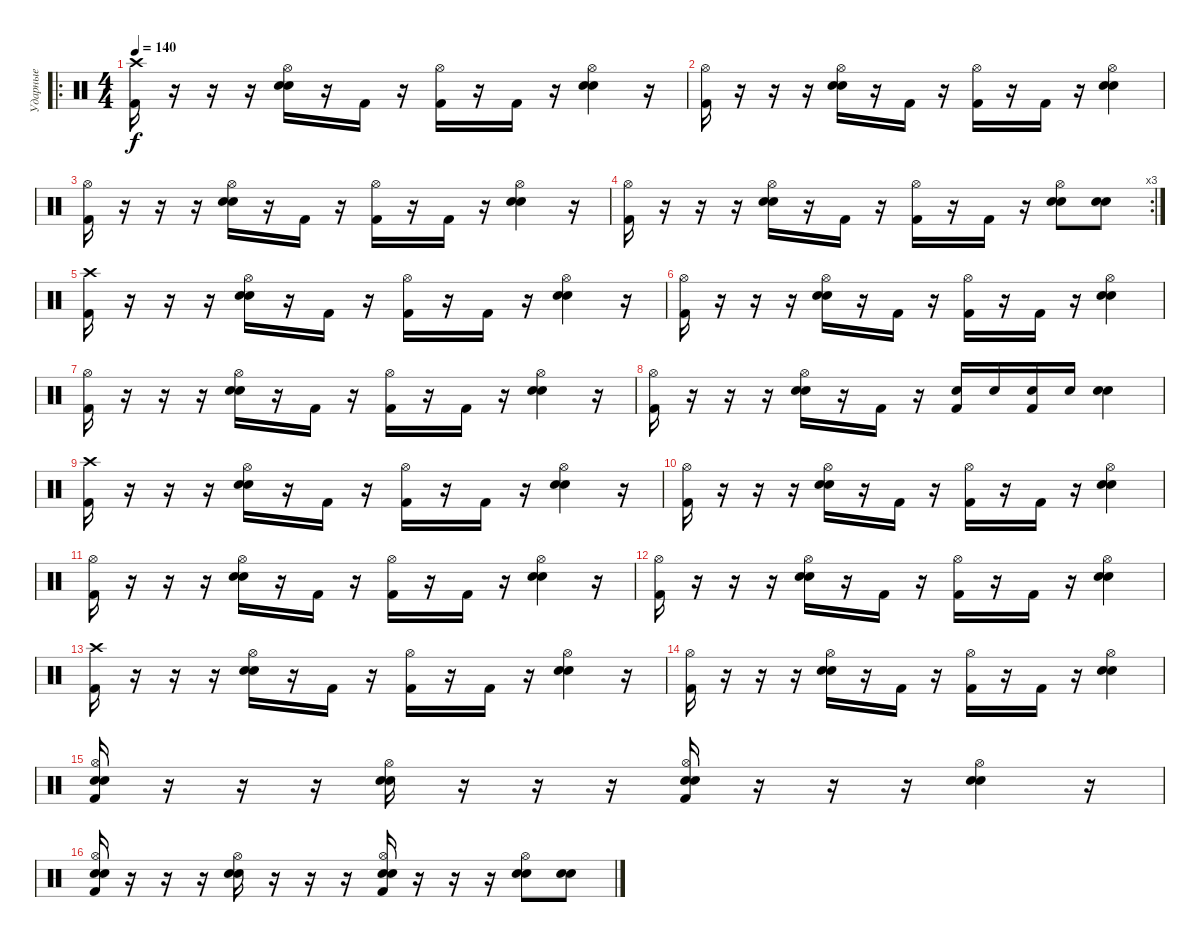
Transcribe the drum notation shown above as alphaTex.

\track ("Ударные" "Ударные") {instrument percussion}
\staff {score}
\articulation defaults
\ro
\ts (4 4)
\tempo 140
\clef neutral
\ks c
("Crash high (hit)" "Kick (hit) 2").16{dy f} r.16 r.16 r.16 ("Hi-Hat (open)" "Electric Snare (hit)" "Snare (hit) 2").16 r.16 "Kick (hit) 2".16 r.16 ("Hi-Hat (open)" "Kick (hit) 2").16 r.16 "Kick (hit) 2".16 r.16 ("Hi-Hat (open)" "Electric Snare (hit)" "Snare (hit) 2").4 r.16 |
("Hi-Hat (open)" "Kick (hit) 2").16 r.16 r.16 r.16 ("Hi-Hat (open)" "Electric Snare (hit)" "Snare (hit) 2").16 r.16 "Kick (hit) 2".16 r.16 ("Hi-Hat (open)" "Kick (hit) 2").16 r.16 "Kick (hit) 2".16 r.16 ("Hi-Hat (open)" "Electric Snare (hit)" "Snare (hit) 2").4 |
("Hi-Hat (open)" "Kick (hit) 2").16 r.16 r.16 r.16 ("Hi-Hat (open)" "Electric Snare (hit)" "Snare (hit) 2").16 r.16 "Kick (hit) 2".16 r.16 ("Hi-Hat (open)" "Kick (hit) 2").16 r.16 "Kick (hit) 2".16 r.16 ("Hi-Hat (open)" "Electric Snare (hit)" "Snare (hit) 2").4 r.16 |
\rc 3
("Hi-Hat (open)" "Kick (hit) 2").16 r.16 r.16 r.16 ("Hi-Hat (open)" "Electric Snare (hit)" "Snare (hit) 2").16 r.16 "Kick (hit) 2".16 r.16 ("Hi-Hat (open)" "Kick (hit) 2").16 r.16 "Kick (hit) 2".16 r.16 ("Hi-Hat (open)" "Electric Snare (hit)" "Snare (hit) 2").8 ("Electric Snare (hit)" "Snare (hit) 2").8 |
("Crash high (hit)" "Kick (hit) 2").16 r.16 r.16 r.16 ("Hi-Hat (open)" "Electric Snare (hit)" "Snare (hit) 2").16 r.16 "Kick (hit) 2".16 r.16 ("Hi-Hat (open)" "Kick (hit) 2").16 r.16 "Kick (hit) 2".16 r.16 ("Hi-Hat (open)" "Electric Snare (hit)" "Snare (hit) 2").4 r.16 |
("Hi-Hat (open)" "Kick (hit) 2").16 r.16 r.16 r.16 ("Hi-Hat (open)" "Electric Snare (hit)" "Snare (hit) 2").16 r.16 "Kick (hit) 2".16 r.16 ("Hi-Hat (open)" "Kick (hit) 2").16 r.16 "Kick (hit) 2".16 r.16 ("Hi-Hat (open)" "Electric Snare (hit)" "Snare (hit) 2").4 |
("Hi-Hat (open)" "Kick (hit) 2").16 r.16 r.16 r.16 ("Hi-Hat (open)" "Electric Snare (hit)" "Snare (hit) 2").16 r.16 "Kick (hit) 2".16 r.16 ("Hi-Hat (open)" "Kick (hit) 2").16 r.16 "Kick (hit) 2".16 r.16 ("Hi-Hat (open)" "Electric Snare (hit)" "Snare (hit) 2").4 r.16 |
("Hi-Hat (open)" "Kick (hit) 2").16 r.16 r.16 r.16 ("Hi-Hat (open)" "Electric Snare (hit)" "Snare (hit) 2").16 r.16 "Kick (hit) 2".16 r.16 ("Kick (hit) 2" "Electric Snare (hit)").16 "Electric Snare (hit)".16 ("Kick (hit) 2" "Electric Snare (hit)").16 "Electric Snare (hit)".16 ("Electric Snare (hit)" "Snare (hit) 2").4 |
("Crash high (hit)" "Kick (hit) 2").16 r.16 r.16 r.16 ("Hi-Hat (open)" "Electric Snare (hit)" "Snare (hit) 2").16 r.16 "Kick (hit) 2".16 r.16 ("Hi-Hat (open)" "Kick (hit) 2").16 r.16 "Kick (hit) 2".16 r.16 ("Hi-Hat (open)" "Electric Snare (hit)" "Snare (hit) 2").4 r.16 |
("Hi-Hat (open)" "Kick (hit) 2").16 r.16 r.16 r.16 ("Hi-Hat (open)" "Electric Snare (hit)" "Snare (hit) 2").16 r.16 "Kick (hit) 2".16 r.16 ("Hi-Hat (open)" "Kick (hit) 2").16 r.16 "Kick (hit) 2".16 r.16 ("Hi-Hat (open)" "Electric Snare (hit)" "Snare (hit) 2").4 |
("Hi-Hat (open)" "Kick (hit) 2").16 r.16 r.16 r.16 ("Hi-Hat (open)" "Electric Snare (hit)" "Snare (hit) 2").16 r.16 "Kick (hit) 2".16 r.16 ("Hi-Hat (open)" "Kick (hit) 2").16 r.16 "Kick (hit) 2".16 r.16 ("Hi-Hat (open)" "Electric Snare (hit)" "Snare (hit) 2").4 r.16 |
("Hi-Hat (open)" "Kick (hit) 2").16 r.16 r.16 r.16 ("Hi-Hat (open)" "Electric Snare (hit)" "Snare (hit) 2").16 r.16 "Kick (hit) 2".16 r.16 ("Hi-Hat (open)" "Kick (hit) 2").16 r.16 "Kick (hit) 2".16 r.16 ("Hi-Hat (open)" "Electric Snare (hit)" "Snare (hit) 2").4 |
("Crash high (hit)" "Kick (hit) 2").16 r.16 r.16 r.16 ("Hi-Hat (open)" "Electric Snare (hit)" "Snare (hit) 2").16 r.16 "Kick (hit) 2".16 r.16 ("Hi-Hat (open)" "Kick (hit) 2").16 r.16 "Kick (hit) 2".16 r.16 ("Hi-Hat (open)" "Electric Snare (hit)" "Snare (hit) 2").4 r.16 |
("Hi-Hat (open)" "Kick (hit) 2").16 r.16 r.16 r.16 ("Hi-Hat (open)" "Electric Snare (hit)" "Snare (hit) 2").16 r.16 "Kick (hit) 2".16 r.16 ("Hi-Hat (open)" "Kick (hit) 2").16 r.16 "Kick (hit) 2".16 r.16 ("Hi-Hat (open)" "Electric Snare (hit)" "Snare (hit) 2").4 |
("Hi-Hat (open)" "Kick (hit) 2" "Electric Snare (hit)" "Snare (hit) 2").16 r.16 r.16 r.16 ("Hi-Hat (open)" "Electric Snare (hit)" "Snare (hit) 2").16 r.16 r.16 r.16 ("Hi-Hat (open)" "Kick (hit) 2" "Electric Snare (hit)" "Snare (hit) 2").16 r.16 r.16 r.16 ("Hi-Hat (open)" "Electric Snare (hit)" "Snare (hit) 2").4 r.16 |
("Hi-Hat (open)" "Kick (hit) 2" "Electric Snare (hit)" "Snare (hit) 2").16 r.16 r.16 r.16 ("Hi-Hat (open)" "Electric Snare (hit)" "Snare (hit) 2").16 r.16 r.16 r.16 ("Hi-Hat (open)" "Kick (hit) 2" "Electric Snare (hit)" "Snare (hit) 2").16 r.16 r.16 r.16 ("Hi-Hat (open)" "Electric Snare (hit)" "Snare (hit) 2").8 ("Electric Snare (hit)" "Snare (hit) 2").8
